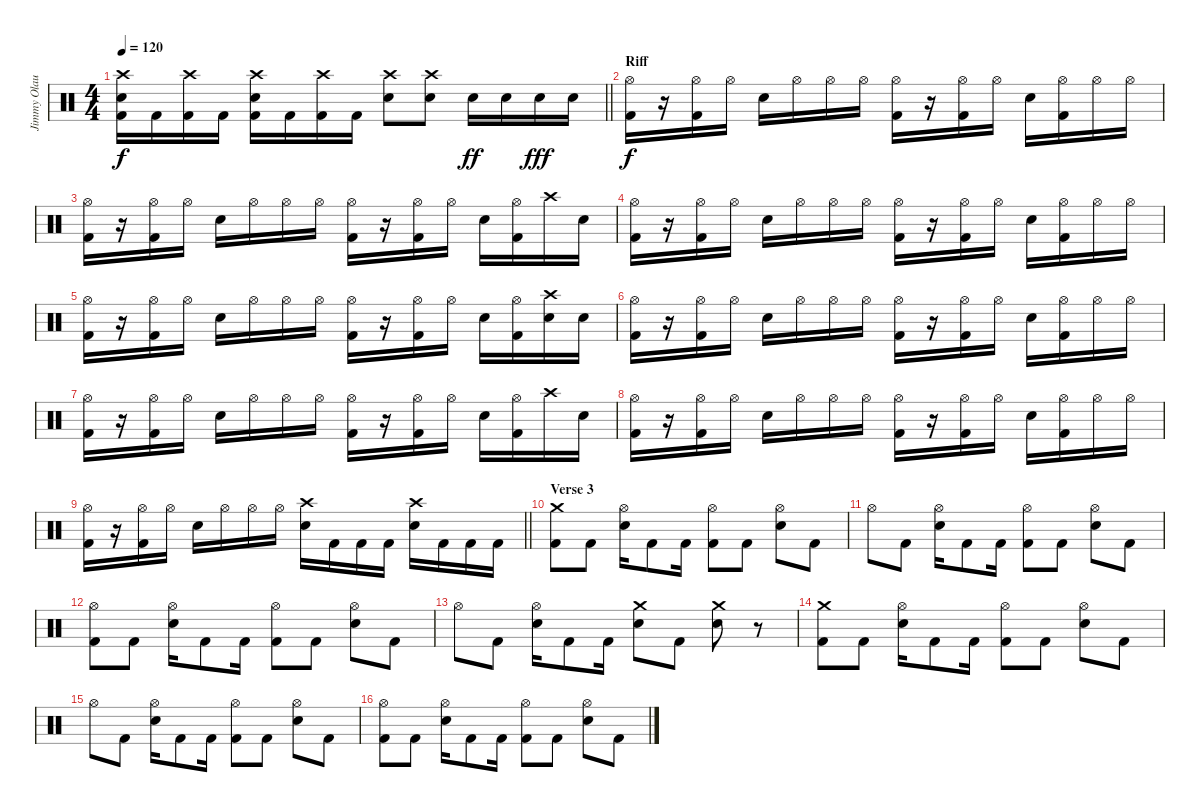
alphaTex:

\track ("Jimmy Olausson" "Jimmy Olau") {instrument percussion}
\staff {score}
\articulation defaults
\ts (4 4)
\tempo 120
\clef neutral
\barLineRight lightlight
\ks c
("Crash high (hit)" "Snare (hit) 2" "Kick (hit) 2").16{dy f} "Kick (hit) 2".16 ("Crash high (hit)" "Kick (hit) 2").16 "Kick (hit) 2".16 ("Crash high (hit)" "Snare (hit) 2" "Kick (hit) 2").16 "Kick (hit) 2".16 ("Crash high (hit)" "Kick (hit) 2").16 "Kick (hit) 2".16 ("Crash high (hit)" "Snare (hit) 2").8 ("Crash high (hit)" "Snare (hit) 2").8 "Snare (hit) 2".16{dy ff} "Snare (hit) 2".16 "Snare (hit) 2".16{dy fff} "Snare (hit) 2".16 |
\section ("" "Riff")
("Hi-Hat (open)" "Kick (hit) 2").16{dy f} r.16 ("Hi-Hat (open)" "Kick (hit) 2").16 "Hi-Hat (open)".16 "Snare (hit) 2".16 "Hi-Hat (open)".16 "Hi-Hat (open)".16 "Hi-Hat (open)".16 ("Hi-Hat (open)" "Kick (hit) 2").16 r.16 ("Hi-Hat (open)" "Kick (hit) 2").16 "Hi-Hat (open)".16 "Snare (hit) 2".16 ("Hi-Hat (open)" "Kick (hit) 2").16 "Hi-Hat (open)".16 "Hi-Hat (open)".16 |
("Hi-Hat (open)" "Kick (hit) 2").16 r.16 ("Hi-Hat (open)" "Kick (hit) 2").16 "Hi-Hat (open)".16 "Snare (hit) 2".16 "Hi-Hat (open)".16 "Hi-Hat (open)".16 "Hi-Hat (open)".16 ("Hi-Hat (open)" "Kick (hit) 2").16 r.16 ("Hi-Hat (open)" "Kick (hit) 2").16 "Hi-Hat (open)".16 "Snare (hit) 2".16 ("Hi-Hat (open)" "Kick (hit) 2").16 "Crash high (hit)".16 "Snare (hit) 2".16 |
("Hi-Hat (open)" "Kick (hit) 2").16 r.16 ("Hi-Hat (open)" "Kick (hit) 2").16 "Hi-Hat (open)".16 "Snare (hit) 2".16 "Hi-Hat (open)".16 "Hi-Hat (open)".16 "Hi-Hat (open)".16 ("Hi-Hat (open)" "Kick (hit) 2").16 r.16 ("Hi-Hat (open)" "Kick (hit) 2").16 "Hi-Hat (open)".16 "Snare (hit) 2".16 ("Hi-Hat (open)" "Kick (hit) 2").16 "Hi-Hat (open)".16 "Hi-Hat (open)".16 |
("Hi-Hat (open)" "Kick (hit) 2").16 r.16 ("Hi-Hat (open)" "Kick (hit) 2").16 "Hi-Hat (open)".16 "Snare (hit) 2".16 "Hi-Hat (open)".16 "Hi-Hat (open)".16 "Hi-Hat (open)".16 ("Hi-Hat (open)" "Kick (hit) 2").16 r.16 ("Hi-Hat (open)" "Kick (hit) 2").16 "Hi-Hat (open)".16 "Snare (hit) 2".16 ("Hi-Hat (open)" "Kick (hit) 2").16 ("Crash high (hit)" "Snare (hit) 2").16 "Snare (hit) 2".16 |
("Hi-Hat (open)" "Kick (hit) 2").16 r.16 ("Hi-Hat (open)" "Kick (hit) 2").16 "Hi-Hat (open)".16 "Snare (hit) 2".16 "Hi-Hat (open)".16 "Hi-Hat (open)".16 "Hi-Hat (open)".16 ("Hi-Hat (open)" "Kick (hit) 2").16 r.16 ("Hi-Hat (open)" "Kick (hit) 2").16 "Hi-Hat (open)".16 "Snare (hit) 2".16 ("Hi-Hat (open)" "Kick (hit) 2").16 "Hi-Hat (open)".16 "Hi-Hat (open)".16 |
("Hi-Hat (open)" "Kick (hit) 2").16 r.16 ("Hi-Hat (open)" "Kick (hit) 2").16 "Hi-Hat (open)".16 "Snare (hit) 2".16 "Hi-Hat (open)".16 "Hi-Hat (open)".16 "Hi-Hat (open)".16 ("Hi-Hat (open)" "Kick (hit) 2").16 r.16 ("Hi-Hat (open)" "Kick (hit) 2").16 "Hi-Hat (open)".16 "Snare (hit) 2".16 ("Hi-Hat (open)" "Kick (hit) 2").16 "Crash high (hit)".16 "Snare (hit) 2".16 |
("Hi-Hat (open)" "Kick (hit) 2").16 r.16 ("Hi-Hat (open)" "Kick (hit) 2").16 "Hi-Hat (open)".16 "Snare (hit) 2".16 "Hi-Hat (open)".16 "Hi-Hat (open)".16 "Hi-Hat (open)".16 ("Hi-Hat (open)" "Kick (hit) 2").16 r.16 ("Hi-Hat (open)" "Kick (hit) 2").16 "Hi-Hat (open)".16 "Snare (hit) 2".16 ("Hi-Hat (open)" "Kick (hit) 2").16 "Hi-Hat (open)".16 "Hi-Hat (open)".16 |
\barLineRight lightlight
("Hi-Hat (open)" "Kick (hit) 2").16 r.16 ("Hi-Hat (open)" "Kick (hit) 2").16 "Hi-Hat (open)".16 "Snare (hit) 2".16 "Hi-Hat (open)".16 "Hi-Hat (open)".16 "Hi-Hat (open)".16 ("Crash high (hit)" "Snare (hit) 2").16 "Kick (hit) 2".16 "Kick (hit) 2".16 "Kick (hit) 2".16 ("Crash high (hit)" "Snare (hit) 2").16 "Kick (hit) 2".16 "Kick (hit) 2".16 "Kick (hit) 2".16 |
\section ("" "Verse 3")
("Crash medium (hit)" "Kick (hit) 2").8 "Kick (hit) 2".8 ("Hi-Hat (open)" "Snare (hit) 2").16 "Kick (hit) 2".8 "Kick (hit) 2".16 ("Hi-Hat (open)" "Kick (hit) 2").8 "Kick (hit) 2".8 ("Hi-Hat (open)" "Snare (hit) 2").8 "Kick (hit) 2".8 |
"Hi-Hat (open)".8 "Kick (hit) 2".8 ("Hi-Hat (open)" "Snare (hit) 2").16 "Kick (hit) 2".8 "Kick (hit) 2".16 ("Hi-Hat (open)" "Kick (hit) 2").8 "Kick (hit) 2".8 ("Hi-Hat (open)" "Snare (hit) 2").8 "Kick (hit) 2".8 |
("Hi-Hat (open)" "Kick (hit) 2").8 "Kick (hit) 2".8 ("Hi-Hat (open)" "Snare (hit) 2").16 "Kick (hit) 2".8 "Kick (hit) 2".16 ("Hi-Hat (open)" "Kick (hit) 2").8 "Kick (hit) 2".8 ("Hi-Hat (open)" "Snare (hit) 2").8 "Kick (hit) 2".8 |
"Hi-Hat (open)".8 "Kick (hit) 2".8 ("Hi-Hat (open)" "Snare (hit) 2").16 "Kick (hit) 2".8 "Kick (hit) 2".16 ("Crash medium (hit)" "Snare (hit) 2").8 "Kick (hit) 2".8 ("Crash medium (hit)" "Snare (hit) 2").8 r.8 |
("Crash medium (hit)" "Kick (hit) 2").8 "Kick (hit) 2".8 ("Hi-Hat (open)" "Snare (hit) 2").16 "Kick (hit) 2".8 "Kick (hit) 2".16 ("Hi-Hat (open)" "Kick (hit) 2").8 "Kick (hit) 2".8 ("Hi-Hat (open)" "Snare (hit) 2").8 "Kick (hit) 2".8 |
"Hi-Hat (open)".8 "Kick (hit) 2".8 ("Hi-Hat (open)" "Snare (hit) 2").16 "Kick (hit) 2".8 "Kick (hit) 2".16 ("Hi-Hat (open)" "Kick (hit) 2").8 "Kick (hit) 2".8 ("Hi-Hat (open)" "Snare (hit) 2").8 "Kick (hit) 2".8 |
("Hi-Hat (open)" "Kick (hit) 2").8 "Kick (hit) 2".8 ("Hi-Hat (open)" "Snare (hit) 2").16 "Kick (hit) 2".8 "Kick (hit) 2".16 ("Hi-Hat (open)" "Kick (hit) 2").8 "Kick (hit) 2".8 ("Hi-Hat (open)" "Snare (hit) 2").8 "Kick (hit) 2".8
